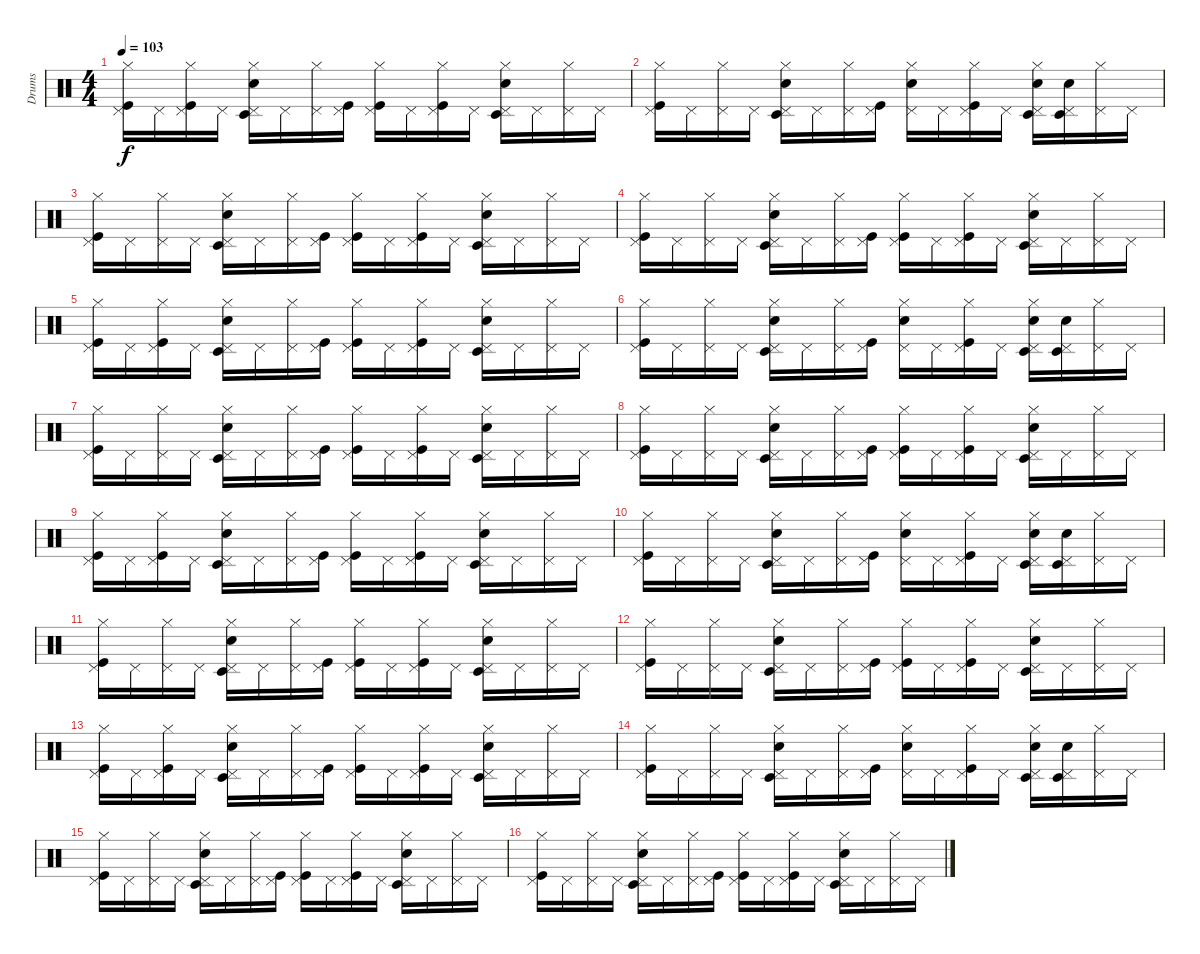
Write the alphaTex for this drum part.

\track ("Drums" "Drums") {instrument percussion}
\staff {score}
\articulation defaults
\ts (4 4)
\tempo 103
\clef neutral
\ks c
("Hi-Hat (closed)" "Kick (hit)" "Pedal Hi-Hat (hit)").16{dy f} "Pedal Hi-Hat (hit)".16 ("Kick (hit)" "Hi-Hat (closed)" "Pedal Hi-Hat (hit)").16 "Pedal Hi-Hat (hit)".16 ("Timbale low (hit)" "Hi-Hat (closed)" "Electric Snare (hit)" "Pedal Hi-Hat (hit)").16 "Pedal Hi-Hat (hit)".16 ("Hi-Hat (closed)" "Pedal Hi-Hat (hit)").16 ("Kick (hit)" "Pedal Hi-Hat (hit)").16 ("Kick (hit)" "Hi-Hat (closed)" "Pedal Hi-Hat (hit)").16 "Pedal Hi-Hat (hit)".16 ("Kick (hit)" "Hi-Hat (closed)" "Pedal Hi-Hat (hit)").16 "Pedal Hi-Hat (hit)".16 ("Timbale low (hit)" "Electric Snare (hit)" "Hi-Hat (closed)" "Pedal Hi-Hat (hit)").16 "Pedal Hi-Hat (hit)".16 ("Hi-Hat (closed)" "Pedal Hi-Hat (hit)").16 "Pedal Hi-Hat (hit)".16 |
("Hi-Hat (closed)" "Kick (hit)" "Pedal Hi-Hat (hit)").16 "Pedal Hi-Hat (hit)".16 ("Hi-Hat (closed)" "Pedal Hi-Hat (hit)").16 "Pedal Hi-Hat (hit)".16 ("Hi-Hat (closed)" "Electric Snare (hit)" "Timbale low (hit)" "Pedal Hi-Hat (hit)").16 "Pedal Hi-Hat (hit)".16 ("Hi-Hat (closed)" "Pedal Hi-Hat (hit)").16 ("Pedal Hi-Hat (hit)" "Kick (hit)").16 ("Hi-Hat (closed)" "Pedal Hi-Hat (hit)" "Electric Snare (hit)").16 "Pedal Hi-Hat (hit)".16 ("Kick (hit)" "Hi-Hat (closed)" "Pedal Hi-Hat (hit)").16 "Pedal Hi-Hat (hit)".16 ("Electric Snare (hit)" "Hi-Hat (closed)" "Timbale low (hit)" "Pedal Hi-Hat (hit)").16 ("Timbale low (hit)" "Electric Snare (hit)" "Pedal Hi-Hat (hit)").16 ("Hi-Hat (closed)" "Pedal Hi-Hat (hit)").16 "Pedal Hi-Hat (hit)".16 |
("Hi-Hat (closed)" "Kick (hit)" "Pedal Hi-Hat (hit)").16 "Pedal Hi-Hat (hit)".16 ("Hi-Hat (closed)" "Pedal Hi-Hat (hit)").16 "Pedal Hi-Hat (hit)".16 ("Hi-Hat (closed)" "Timbale low (hit)" "Electric Snare (hit)" "Pedal Hi-Hat (hit)").16 "Pedal Hi-Hat (hit)".16 ("Hi-Hat (closed)" "Pedal Hi-Hat (hit)").16 ("Kick (hit)" "Pedal Hi-Hat (hit)").16 ("Hi-Hat (closed)" "Kick (hit)" "Pedal Hi-Hat (hit)").16 "Pedal Hi-Hat (hit)".16 ("Hi-Hat (closed)" "Kick (hit)" "Pedal Hi-Hat (hit)").16 "Pedal Hi-Hat (hit)".16 ("Timbale low (hit)" "Electric Snare (hit)" "Hi-Hat (closed)" "Pedal Hi-Hat (hit)").16 "Pedal Hi-Hat (hit)".16 ("Hi-Hat (closed)" "Pedal Hi-Hat (hit)").16 "Pedal Hi-Hat (hit)".16 |
("Hi-Hat (closed)" "Kick (hit)" "Pedal Hi-Hat (hit)").16 "Pedal Hi-Hat (hit)".16 ("Hi-Hat (closed)" "Pedal Hi-Hat (hit)").16 "Pedal Hi-Hat (hit)".16 ("Timbale low (hit)" "Hi-Hat (closed)" "Electric Snare (hit)" "Pedal Hi-Hat (hit)").16 "Pedal Hi-Hat (hit)".16 ("Hi-Hat (closed)" "Pedal Hi-Hat (hit)").16 ("Kick (hit)" "Pedal Hi-Hat (hit)").16 ("Hi-Hat (closed)" "Kick (hit)" "Pedal Hi-Hat (hit)").16 "Pedal Hi-Hat (hit)".16 ("Hi-Hat (closed)" "Kick (hit)" "Pedal Hi-Hat (hit)").16 "Pedal Hi-Hat (hit)".16 ("Electric Snare (hit)" "Hi-Hat (closed)" "Timbale low (hit)" "Pedal Hi-Hat (hit)").16 "Pedal Hi-Hat (hit)".16 ("Hi-Hat (closed)" "Pedal Hi-Hat (hit)").16 "Pedal Hi-Hat (hit)".16 |
("Hi-Hat (closed)" "Kick (hit)" "Pedal Hi-Hat (hit)").16 "Pedal Hi-Hat (hit)".16 ("Kick (hit)" "Hi-Hat (closed)" "Pedal Hi-Hat (hit)").16 "Pedal Hi-Hat (hit)".16 ("Timbale low (hit)" "Hi-Hat (closed)" "Electric Snare (hit)" "Pedal Hi-Hat (hit)").16 "Pedal Hi-Hat (hit)".16 ("Hi-Hat (closed)" "Pedal Hi-Hat (hit)").16 ("Kick (hit)" "Pedal Hi-Hat (hit)").16 ("Kick (hit)" "Hi-Hat (closed)" "Pedal Hi-Hat (hit)").16 "Pedal Hi-Hat (hit)".16 ("Kick (hit)" "Hi-Hat (closed)" "Pedal Hi-Hat (hit)").16 "Pedal Hi-Hat (hit)".16 ("Timbale low (hit)" "Electric Snare (hit)" "Hi-Hat (closed)" "Pedal Hi-Hat (hit)").16 "Pedal Hi-Hat (hit)".16 ("Hi-Hat (closed)" "Pedal Hi-Hat (hit)").16 "Pedal Hi-Hat (hit)".16 |
("Hi-Hat (closed)" "Kick (hit)" "Pedal Hi-Hat (hit)").16 "Pedal Hi-Hat (hit)".16 ("Hi-Hat (closed)" "Pedal Hi-Hat (hit)").16 "Pedal Hi-Hat (hit)".16 ("Hi-Hat (closed)" "Electric Snare (hit)" "Timbale low (hit)" "Pedal Hi-Hat (hit)").16 "Pedal Hi-Hat (hit)".16 ("Hi-Hat (closed)" "Pedal Hi-Hat (hit)").16 ("Pedal Hi-Hat (hit)" "Kick (hit)").16 ("Hi-Hat (closed)" "Pedal Hi-Hat (hit)" "Electric Snare (hit)").16 "Pedal Hi-Hat (hit)".16 ("Kick (hit)" "Hi-Hat (closed)" "Pedal Hi-Hat (hit)").16 "Pedal Hi-Hat (hit)".16 ("Electric Snare (hit)" "Hi-Hat (closed)" "Timbale low (hit)" "Pedal Hi-Hat (hit)").16 ("Timbale low (hit)" "Electric Snare (hit)" "Pedal Hi-Hat (hit)").16 ("Hi-Hat (closed)" "Pedal Hi-Hat (hit)").16 "Pedal Hi-Hat (hit)".16 |
("Hi-Hat (closed)" "Kick (hit)" "Pedal Hi-Hat (hit)").16 "Pedal Hi-Hat (hit)".16 ("Hi-Hat (closed)" "Pedal Hi-Hat (hit)").16 "Pedal Hi-Hat (hit)".16 ("Hi-Hat (closed)" "Timbale low (hit)" "Electric Snare (hit)" "Pedal Hi-Hat (hit)").16 "Pedal Hi-Hat (hit)".16 ("Hi-Hat (closed)" "Pedal Hi-Hat (hit)").16 ("Kick (hit)" "Pedal Hi-Hat (hit)").16 ("Hi-Hat (closed)" "Kick (hit)" "Pedal Hi-Hat (hit)").16 "Pedal Hi-Hat (hit)".16 ("Hi-Hat (closed)" "Kick (hit)" "Pedal Hi-Hat (hit)").16 "Pedal Hi-Hat (hit)".16 ("Timbale low (hit)" "Electric Snare (hit)" "Hi-Hat (closed)" "Pedal Hi-Hat (hit)").16 "Pedal Hi-Hat (hit)".16 ("Hi-Hat (closed)" "Pedal Hi-Hat (hit)").16 "Pedal Hi-Hat (hit)".16 |
("Hi-Hat (closed)" "Kick (hit)" "Pedal Hi-Hat (hit)").16 "Pedal Hi-Hat (hit)".16 ("Hi-Hat (closed)" "Pedal Hi-Hat (hit)").16 "Pedal Hi-Hat (hit)".16 ("Timbale low (hit)" "Hi-Hat (closed)" "Electric Snare (hit)" "Pedal Hi-Hat (hit)").16 "Pedal Hi-Hat (hit)".16 ("Hi-Hat (closed)" "Pedal Hi-Hat (hit)").16 ("Kick (hit)" "Pedal Hi-Hat (hit)").16 ("Hi-Hat (closed)" "Kick (hit)" "Pedal Hi-Hat (hit)").16 "Pedal Hi-Hat (hit)".16 ("Hi-Hat (closed)" "Kick (hit)" "Pedal Hi-Hat (hit)").16 "Pedal Hi-Hat (hit)".16 ("Electric Snare (hit)" "Hi-Hat (closed)" "Timbale low (hit)" "Pedal Hi-Hat (hit)").16 "Pedal Hi-Hat (hit)".16 ("Hi-Hat (closed)" "Pedal Hi-Hat (hit)").16 "Pedal Hi-Hat (hit)".16 |
("Hi-Hat (closed)" "Kick (hit)" "Pedal Hi-Hat (hit)").16 "Pedal Hi-Hat (hit)".16 ("Kick (hit)" "Hi-Hat (closed)" "Pedal Hi-Hat (hit)").16 "Pedal Hi-Hat (hit)".16 ("Timbale low (hit)" "Hi-Hat (closed)" "Electric Snare (hit)" "Pedal Hi-Hat (hit)").16 "Pedal Hi-Hat (hit)".16 ("Hi-Hat (closed)" "Pedal Hi-Hat (hit)").16 ("Kick (hit)" "Pedal Hi-Hat (hit)").16 ("Kick (hit)" "Hi-Hat (closed)" "Pedal Hi-Hat (hit)").16 "Pedal Hi-Hat (hit)".16 ("Kick (hit)" "Hi-Hat (closed)" "Pedal Hi-Hat (hit)").16 "Pedal Hi-Hat (hit)".16 ("Timbale low (hit)" "Electric Snare (hit)" "Hi-Hat (closed)" "Pedal Hi-Hat (hit)").16 "Pedal Hi-Hat (hit)".16 ("Hi-Hat (closed)" "Pedal Hi-Hat (hit)").16 "Pedal Hi-Hat (hit)".16 |
("Hi-Hat (closed)" "Kick (hit)" "Pedal Hi-Hat (hit)").16 "Pedal Hi-Hat (hit)".16 ("Hi-Hat (closed)" "Pedal Hi-Hat (hit)").16 "Pedal Hi-Hat (hit)".16 ("Hi-Hat (closed)" "Electric Snare (hit)" "Timbale low (hit)" "Pedal Hi-Hat (hit)").16 "Pedal Hi-Hat (hit)".16 ("Hi-Hat (closed)" "Pedal Hi-Hat (hit)").16 ("Pedal Hi-Hat (hit)" "Kick (hit)").16 ("Hi-Hat (closed)" "Pedal Hi-Hat (hit)" "Electric Snare (hit)").16 "Pedal Hi-Hat (hit)".16 ("Kick (hit)" "Hi-Hat (closed)" "Pedal Hi-Hat (hit)").16 "Pedal Hi-Hat (hit)".16 ("Electric Snare (hit)" "Hi-Hat (closed)" "Timbale low (hit)" "Pedal Hi-Hat (hit)").16 ("Timbale low (hit)" "Electric Snare (hit)" "Pedal Hi-Hat (hit)").16 ("Hi-Hat (closed)" "Pedal Hi-Hat (hit)").16 "Pedal Hi-Hat (hit)".16 |
("Hi-Hat (closed)" "Kick (hit)" "Pedal Hi-Hat (hit)").16 "Pedal Hi-Hat (hit)".16 ("Hi-Hat (closed)" "Pedal Hi-Hat (hit)").16 "Pedal Hi-Hat (hit)".16 ("Hi-Hat (closed)" "Timbale low (hit)" "Electric Snare (hit)" "Pedal Hi-Hat (hit)").16 "Pedal Hi-Hat (hit)".16 ("Hi-Hat (closed)" "Pedal Hi-Hat (hit)").16 ("Kick (hit)" "Pedal Hi-Hat (hit)").16 ("Hi-Hat (closed)" "Kick (hit)" "Pedal Hi-Hat (hit)").16 "Pedal Hi-Hat (hit)".16 ("Hi-Hat (closed)" "Kick (hit)" "Pedal Hi-Hat (hit)").16 "Pedal Hi-Hat (hit)".16 ("Timbale low (hit)" "Electric Snare (hit)" "Hi-Hat (closed)" "Pedal Hi-Hat (hit)").16 "Pedal Hi-Hat (hit)".16 ("Hi-Hat (closed)" "Pedal Hi-Hat (hit)").16 "Pedal Hi-Hat (hit)".16 |
("Hi-Hat (closed)" "Kick (hit)" "Pedal Hi-Hat (hit)").16 "Pedal Hi-Hat (hit)".16 ("Hi-Hat (closed)" "Pedal Hi-Hat (hit)").16 "Pedal Hi-Hat (hit)".16 ("Timbale low (hit)" "Hi-Hat (closed)" "Electric Snare (hit)" "Pedal Hi-Hat (hit)").16 "Pedal Hi-Hat (hit)".16 ("Hi-Hat (closed)" "Pedal Hi-Hat (hit)").16 ("Kick (hit)" "Pedal Hi-Hat (hit)").16 ("Hi-Hat (closed)" "Kick (hit)" "Pedal Hi-Hat (hit)").16 "Pedal Hi-Hat (hit)".16 ("Hi-Hat (closed)" "Kick (hit)" "Pedal Hi-Hat (hit)").16 "Pedal Hi-Hat (hit)".16 ("Electric Snare (hit)" "Hi-Hat (closed)" "Timbale low (hit)" "Pedal Hi-Hat (hit)").16 "Pedal Hi-Hat (hit)".16 ("Hi-Hat (closed)" "Pedal Hi-Hat (hit)").16 "Pedal Hi-Hat (hit)".16 |
("Hi-Hat (closed)" "Kick (hit)" "Pedal Hi-Hat (hit)").16 "Pedal Hi-Hat (hit)".16 ("Kick (hit)" "Hi-Hat (closed)" "Pedal Hi-Hat (hit)").16 "Pedal Hi-Hat (hit)".16 ("Timbale low (hit)" "Hi-Hat (closed)" "Electric Snare (hit)" "Pedal Hi-Hat (hit)").16 "Pedal Hi-Hat (hit)".16 ("Hi-Hat (closed)" "Pedal Hi-Hat (hit)").16 ("Kick (hit)" "Pedal Hi-Hat (hit)").16 ("Kick (hit)" "Hi-Hat (closed)" "Pedal Hi-Hat (hit)").16 "Pedal Hi-Hat (hit)".16 ("Kick (hit)" "Hi-Hat (closed)" "Pedal Hi-Hat (hit)").16 "Pedal Hi-Hat (hit)".16 ("Timbale low (hit)" "Electric Snare (hit)" "Hi-Hat (closed)" "Pedal Hi-Hat (hit)").16 "Pedal Hi-Hat (hit)".16 ("Hi-Hat (closed)" "Pedal Hi-Hat (hit)").16 "Pedal Hi-Hat (hit)".16 |
("Hi-Hat (closed)" "Kick (hit)" "Pedal Hi-Hat (hit)").16 "Pedal Hi-Hat (hit)".16 ("Hi-Hat (closed)" "Pedal Hi-Hat (hit)").16 "Pedal Hi-Hat (hit)".16 ("Hi-Hat (closed)" "Electric Snare (hit)" "Timbale low (hit)" "Pedal Hi-Hat (hit)").16 "Pedal Hi-Hat (hit)".16 ("Hi-Hat (closed)" "Pedal Hi-Hat (hit)").16 ("Pedal Hi-Hat (hit)" "Kick (hit)").16 ("Hi-Hat (closed)" "Pedal Hi-Hat (hit)" "Electric Snare (hit)").16 "Pedal Hi-Hat (hit)".16 ("Kick (hit)" "Hi-Hat (closed)" "Pedal Hi-Hat (hit)").16 "Pedal Hi-Hat (hit)".16 ("Electric Snare (hit)" "Hi-Hat (closed)" "Timbale low (hit)" "Pedal Hi-Hat (hit)").16 ("Timbale low (hit)" "Electric Snare (hit)" "Pedal Hi-Hat (hit)").16 ("Hi-Hat (closed)" "Pedal Hi-Hat (hit)").16 "Pedal Hi-Hat (hit)".16 |
("Hi-Hat (closed)" "Kick (hit)" "Pedal Hi-Hat (hit)").16 "Pedal Hi-Hat (hit)".16 ("Hi-Hat (closed)" "Pedal Hi-Hat (hit)").16 "Pedal Hi-Hat (hit)".16 ("Hi-Hat (closed)" "Timbale low (hit)" "Electric Snare (hit)" "Pedal Hi-Hat (hit)").16 "Pedal Hi-Hat (hit)".16 ("Hi-Hat (closed)" "Pedal Hi-Hat (hit)").16 ("Kick (hit)" "Pedal Hi-Hat (hit)").16 ("Hi-Hat (closed)" "Kick (hit)" "Pedal Hi-Hat (hit)").16 "Pedal Hi-Hat (hit)".16 ("Hi-Hat (closed)" "Kick (hit)" "Pedal Hi-Hat (hit)").16 "Pedal Hi-Hat (hit)".16 ("Timbale low (hit)" "Electric Snare (hit)" "Hi-Hat (closed)" "Pedal Hi-Hat (hit)").16 "Pedal Hi-Hat (hit)".16 ("Hi-Hat (closed)" "Pedal Hi-Hat (hit)").16 "Pedal Hi-Hat (hit)".16 |
("Hi-Hat (closed)" "Kick (hit)" "Pedal Hi-Hat (hit)").16 "Pedal Hi-Hat (hit)".16 ("Hi-Hat (closed)" "Pedal Hi-Hat (hit)").16 "Pedal Hi-Hat (hit)".16 ("Timbale low (hit)" "Hi-Hat (closed)" "Electric Snare (hit)" "Pedal Hi-Hat (hit)").16 "Pedal Hi-Hat (hit)".16 ("Hi-Hat (closed)" "Pedal Hi-Hat (hit)").16 ("Kick (hit)" "Pedal Hi-Hat (hit)").16 ("Hi-Hat (closed)" "Kick (hit)" "Pedal Hi-Hat (hit)").16 "Pedal Hi-Hat (hit)".16 ("Hi-Hat (closed)" "Kick (hit)" "Pedal Hi-Hat (hit)").16 "Pedal Hi-Hat (hit)".16 ("Electric Snare (hit)" "Hi-Hat (closed)" "Timbale low (hit)" "Pedal Hi-Hat (hit)").16 "Pedal Hi-Hat (hit)".16 ("Hi-Hat (closed)" "Pedal Hi-Hat (hit)").16 "Pedal Hi-Hat (hit)".16
